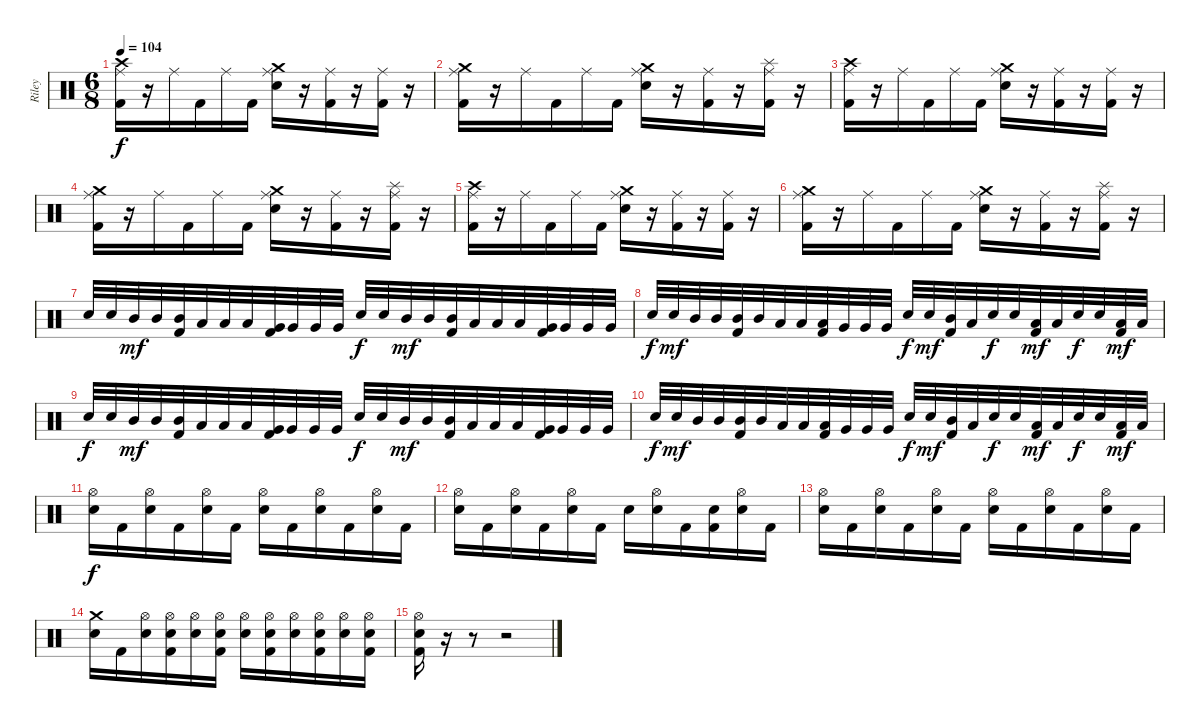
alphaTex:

\track ("Riley" "Riley") {instrument percussion}
\staff {score}
\articulation defaults
\ts (6 8)
\tempo 104
\clef neutral
\ks c
("Crash high (hit)" "Ride (middle)" "Kick (hit) 2").16{dy f} r.16 "Ride (middle)".16 "Kick (hit) 2".16 "Ride (middle)".16 "Kick (hit) 2".16 ("Crash medium (hit)" "Ride (middle)" "Electric Snare (hit)").16 r.16 ("Ride (middle)" "Kick (hit) 2").16 r.16 ("Ride (middle)" "Kick (hit) 2").16 r.16 |
("Crash medium (hit)" "Ride (middle)" "Kick (hit) 2").16 r.16 "Ride (middle)".16 "Kick (hit) 2".16 "Ride (middle)".16 "Kick (hit) 2".16 ("Crash medium (hit)" "Ride (middle)" "Electric Snare (hit)").16 r.16 ("Ride (middle)" "Kick (hit) 2").16 r.16 ("Splash (hit)" "Ride (middle)" "Kick (hit) 2").16 r.16 |
("Crash high (hit)" "Ride (middle)" "Kick (hit) 2").16 r.16 "Ride (middle)".16 "Kick (hit) 2".16 "Ride (middle)".16 "Kick (hit) 2".16 ("Crash medium (hit)" "Ride (middle)" "Electric Snare (hit)").16 r.16 ("Ride (middle)" "Kick (hit) 2").16 r.16 ("Ride (middle)" "Kick (hit) 2").16 r.16 |
("Crash medium (hit)" "Ride (middle)" "Kick (hit) 2").16 r.16 "Ride (middle)".16 "Kick (hit) 2".16 "Ride (middle)".16 "Kick (hit) 2".16 ("Crash medium (hit)" "Ride (middle)" "Electric Snare (hit)").16 r.16 ("Ride (middle)" "Kick (hit) 2").16 r.16 ("Splash (hit)" "Ride (middle)" "Kick (hit) 2").16 r.16 |
("Crash high (hit)" "Ride (middle)" "Kick (hit) 2").16 r.16 "Ride (middle)".16 "Kick (hit) 2".16 "Ride (middle)".16 "Kick (hit) 2".16 ("Crash medium (hit)" "Ride (middle)" "Electric Snare (hit)").16 r.16 ("Ride (middle)" "Kick (hit) 2").16 r.16 ("Ride (middle)" "Kick (hit) 2").16 r.16 |
("Crash medium (hit)" "Ride (middle)" "Kick (hit) 2").16 r.16 "Ride (middle)".16 "Kick (hit) 2".16 "Ride (middle)".16 "Kick (hit) 2".16 ("Crash medium (hit)" "Ride (middle)" "Electric Snare (hit)").16 r.16 ("Ride (middle)" "Kick (hit) 2").16 r.16 ("Splash (hit)" "Ride (middle)" "Kick (hit) 2").16 r.16 |
"Electric Snare (hit)".32 "Electric Snare (hit)".32 "Mid Tom (hit)".32{dy mf} "Mid Tom (hit)".32 ("Mid Tom (hit)" "Kick (hit) 2").32 "Low Tom (hit)".32 "Low Tom (hit)".32 "Low Tom (hit)".32 ("Very Low Tom (hit)" "Kick (hit) 2").32 "Very Low Tom (hit)".32 "Very Low Tom (hit)".32 "Very Low Tom (hit)".32 "Electric Snare (hit)".32{dy f} "Electric Snare (hit)".32 "Mid Tom (hit)".32{dy mf} "Mid Tom (hit)".32 ("Mid Tom (hit)" "Kick (hit) 2").32 "Low Tom (hit)".32 "Low Tom (hit)".32 "Low Tom (hit)".32 ("Very Low Tom (hit)" "Kick (hit) 2").32 "Very Low Tom (hit)".32 "Very Low Tom (hit)".32 "Very Low Tom (hit)".32 |
"Electric Snare (hit)".32{dy f} "Electric Snare (hit)".32{dy mf} "Mid Tom (hit)".32 "Mid Tom (hit)".32 ("Mid Tom (hit)" "Kick (hit) 2").32 "Mid Tom (hit)".32 "Low Tom (hit)".32 "Low Tom (hit)".32 ("Low Tom (hit)" "Kick (hit) 2").32 "Very Low Tom (hit)".32 "Very Low Tom (hit)".32 "Very Low Tom (hit)".32 "Electric Snare (hit)".32{dy f} "Electric Snare (hit)".32{dy mf} ("Mid Tom (hit)" "Kick (hit) 2").32 "Low Tom (hit)".32 "Electric Snare (hit)".32{dy f} "Electric Snare (hit)".32 ("Low Tom (hit)" "Kick (hit) 2").32{dy mf} "Low Tom (hit)".32 "Electric Snare (hit)".32{dy f} "Electric Snare (hit)".32 ("Low Tom (hit)" "Kick (hit) 2").32{dy mf} "Low Tom (hit)".32 |
"Electric Snare (hit)".32{dy f} "Electric Snare (hit)".32 "Mid Tom (hit)".32{dy mf} "Mid Tom (hit)".32 ("Mid Tom (hit)" "Kick (hit) 2").32 "Low Tom (hit)".32 "Low Tom (hit)".32 "Low Tom (hit)".32 ("Very Low Tom (hit)" "Kick (hit) 2").32 "Very Low Tom (hit)".32 "Very Low Tom (hit)".32 "Very Low Tom (hit)".32 "Electric Snare (hit)".32{dy f} "Electric Snare (hit)".32 "Mid Tom (hit)".32{dy mf} "Mid Tom (hit)".32 ("Mid Tom (hit)" "Kick (hit) 2").32 "Low Tom (hit)".32 "Low Tom (hit)".32 "Low Tom (hit)".32 ("Very Low Tom (hit)" "Kick (hit) 2").32 "Very Low Tom (hit)".32 "Very Low Tom (hit)".32 "Very Low Tom (hit)".32 |
"Electric Snare (hit)".32{dy f} "Electric Snare (hit)".32{dy mf} "Mid Tom (hit)".32 "Mid Tom (hit)".32 ("Mid Tom (hit)" "Kick (hit) 2").32 "Mid Tom (hit)".32 "Low Tom (hit)".32 "Low Tom (hit)".32 ("Low Tom (hit)" "Kick (hit) 2").32 "Very Low Tom (hit)".32 "Very Low Tom (hit)".32 "Very Low Tom (hit)".32 "Electric Snare (hit)".32{dy f} "Electric Snare (hit)".32{dy mf} ("Mid Tom (hit)" "Kick (hit) 2").32 "Low Tom (hit)".32 "Electric Snare (hit)".32{dy f} "Electric Snare (hit)".32 ("Low Tom (hit)" "Kick (hit) 2").32{dy mf} "Low Tom (hit)".32 "Electric Snare (hit)".32{dy f} "Electric Snare (hit)".32 ("Low Tom (hit)" "Kick (hit) 2").32{dy mf} "Low Tom (hit)".32 |
("Hi-Hat (open)" "Electric Snare (hit)").16{dy f} "Kick (hit) 2".16 ("Hi-Hat (open)" "Electric Snare (hit)").16 "Kick (hit) 2".16 ("Hi-Hat (open)" "Electric Snare (hit)").16 "Kick (hit) 2".16 ("Hi-Hat (open)" "Electric Snare (hit)").16 "Kick (hit) 2".16 ("Hi-Hat (open)" "Electric Snare (hit)").16 "Kick (hit) 2".16 ("Hi-Hat (open)" "Electric Snare (hit)").16 "Kick (hit) 2".16 |
("Hi-Hat (open)" "Electric Snare (hit)").16 "Kick (hit) 2".16 ("Hi-Hat (open)" "Electric Snare (hit)").16 "Kick (hit) 2".16 ("Hi-Hat (open)" "Electric Snare (hit)").16 "Kick (hit) 2".16 "Electric Snare (hit)".16 ("Hi-Hat (open)" "Electric Snare (hit)").16 "Kick (hit) 2".16 ("Electric Snare (hit)" "Kick (hit) 2").16 ("Hi-Hat (open)" "Electric Snare (hit)").16 "Kick (hit) 2".16 |
("Hi-Hat (open)" "Electric Snare (hit)").16 "Kick (hit) 2".16 ("Hi-Hat (open)" "Electric Snare (hit)").16 "Kick (hit) 2".16 ("Hi-Hat (open)" "Electric Snare (hit)").16 "Kick (hit) 2".16 ("Hi-Hat (open)" "Electric Snare (hit)").16 "Kick (hit) 2".16 ("Hi-Hat (open)" "Electric Snare (hit)").16 "Kick (hit) 2".16 ("Hi-Hat (open)" "Electric Snare (hit)").16 "Kick (hit) 2".16 |
("Crash medium (hit)" "Electric Snare (hit)").16 "Kick (hit) 2".16 ("Hi-Hat (open)" "Electric Snare (hit)").16 ("Hi-Hat (open)" "Electric Snare (hit)" "Kick (hit) 2").16 ("Hi-Hat (open)" "Electric Snare (hit)").16 ("Hi-Hat (open)" "Electric Snare (hit)" "Kick (hit) 2").16 ("Hi-Hat (open)" "Electric Snare (hit)").16 ("Hi-Hat (open)" "Electric Snare (hit)" "Kick (hit) 2").16 ("Hi-Hat (open)" "Electric Snare (hit)").16 ("Hi-Hat (open)" "Electric Snare (hit)" "Kick (hit) 2").16 ("Hi-Hat (open)" "Electric Snare (hit)").16 ("Hi-Hat (open)" "Electric Snare (hit)" "Kick (hit) 2").16 |
("Hi-Hat (open)" "Electric Snare (hit)" "Kick (hit) 2").16 r.16 r.8 r.2
